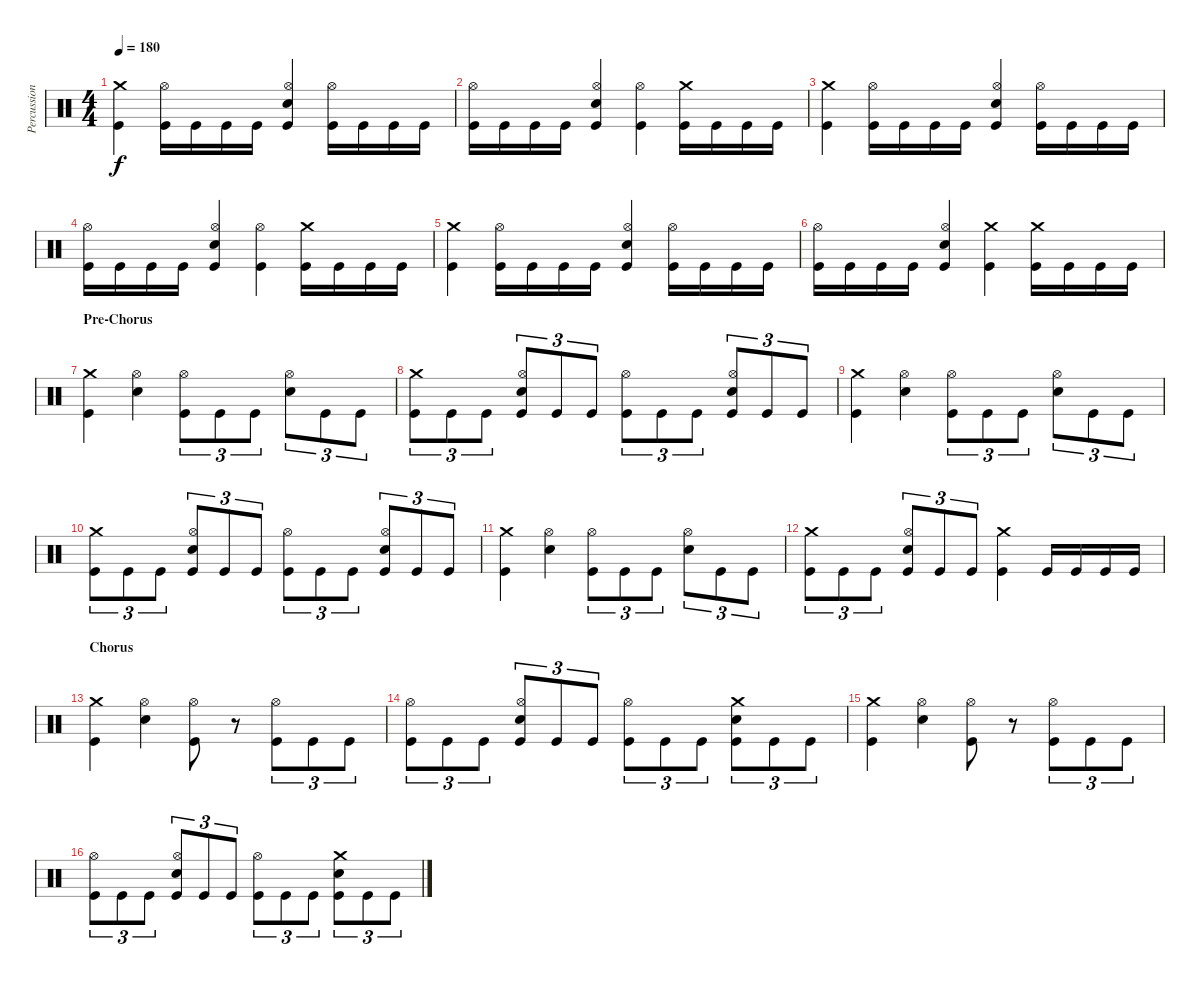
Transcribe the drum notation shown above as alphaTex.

\track ("Percussion" "Percussion") {instrument percussion}
\staff {score}
\articulation defaults
\ts (4 4)
\tempo 180
\clef neutral
\ks c
("Crash medium (hit)" "Kick (hit)").4{dy f} ("Hi-Hat (open)" "Kick (hit)").16 "Kick (hit)".16 "Kick (hit)".16 "Kick (hit)".16 ("Hi-Hat (open)" "Snare (hit) 2" "Kick (hit)").4 ("Hi-Hat (open)" "Kick (hit)").16 "Kick (hit)".16 "Kick (hit)".16 "Kick (hit)".16 |
("Hi-Hat (open)" "Kick (hit)").16 "Kick (hit)".16 "Kick (hit)".16 "Kick (hit)".16 ("Hi-Hat (open)" "Snare (hit) 2" "Kick (hit)").4 ("Hi-Hat (open)" "Kick (hit)").4 ("Crash medium (hit)" "Kick (hit)").16 "Kick (hit)".16 "Kick (hit)".16 "Kick (hit)".16 |
("Crash medium (hit)" "Kick (hit)").4 ("Hi-Hat (open)" "Kick (hit)").16 "Kick (hit)".16 "Kick (hit)".16 "Kick (hit)".16 ("Hi-Hat (open)" "Snare (hit) 2" "Kick (hit)").4 ("Hi-Hat (open)" "Kick (hit)").16 "Kick (hit)".16 "Kick (hit)".16 "Kick (hit)".16 |
("Hi-Hat (open)" "Kick (hit)").16 "Kick (hit)".16 "Kick (hit)".16 "Kick (hit)".16 ("Hi-Hat (open)" "Snare (hit) 2" "Kick (hit)").4 ("Hi-Hat (open)" "Kick (hit)").4 ("Crash medium (hit)" "Kick (hit)").16 "Kick (hit)".16 "Kick (hit)".16 "Kick (hit)".16 |
("Crash medium (hit)" "Kick (hit)").4 ("Hi-Hat (open)" "Kick (hit)").16 "Kick (hit)".16 "Kick (hit)".16 "Kick (hit)".16 ("Hi-Hat (open)" "Snare (hit) 2" "Kick (hit)").4 ("Hi-Hat (open)" "Kick (hit)").16 "Kick (hit)".16 "Kick (hit)".16 "Kick (hit)".16 |
("Hi-Hat (open)" "Kick (hit)").16 "Kick (hit)".16 "Kick (hit)".16 "Kick (hit)".16 ("Hi-Hat (open)" "Snare (hit) 2" "Kick (hit)").4 ("Crash medium (hit)" "Kick (hit)").4 ("Crash medium (hit)" "Kick (hit)").16 "Kick (hit)".16 "Kick (hit)".16 "Kick (hit)".16 |
\section ("" "Pre-Chorus")
("Crash medium (hit)" "Kick (hit)").4 ("Hi-Hat (open)" "Electric Snare (hit)").4 ("Hi-Hat (open)" "Kick (hit)").8{tu (3 2)} "Kick (hit)".8{tu (3 2)} "Kick (hit)".8{tu (3 2)} ("Hi-Hat (open)" "Electric Snare (hit)").8{tu (3 2)} "Kick (hit)".8{tu (3 2)} "Kick (hit)".8{tu (3 2)} |
("Crash medium (hit)" "Kick (hit)").8{tu (3 2)} "Kick (hit)".8{tu (3 2)} "Kick (hit)".8{tu (3 2)} ("Hi-Hat (open)" "Electric Snare (hit)" "Kick (hit)").8{tu (3 2)} "Kick (hit)".8{tu (3 2)} "Kick (hit)".8{tu (3 2)} ("Hi-Hat (open)" "Kick (hit)").8{tu (3 2)} "Kick (hit)".8{tu (3 2)} "Kick (hit)".8{tu (3 2)} ("Hi-Hat (open)" "Electric Snare (hit)" "Kick (hit)").8{tu (3 2)} "Kick (hit)".8{tu (3 2)} "Kick (hit)".8{tu (3 2)} |
("Crash medium (hit)" "Kick (hit)").4 ("Hi-Hat (open)" "Electric Snare (hit)").4 ("Hi-Hat (open)" "Kick (hit)").8{tu (3 2)} "Kick (hit)".8{tu (3 2)} "Kick (hit)".8{tu (3 2)} ("Hi-Hat (open)" "Electric Snare (hit)").8{tu (3 2)} "Kick (hit)".8{tu (3 2)} "Kick (hit)".8{tu (3 2)} |
("Crash medium (hit)" "Kick (hit)").8{tu (3 2)} "Kick (hit)".8{tu (3 2)} "Kick (hit)".8{tu (3 2)} ("Hi-Hat (open)" "Electric Snare (hit)" "Kick (hit)").8{tu (3 2)} "Kick (hit)".8{tu (3 2)} "Kick (hit)".8{tu (3 2)} ("Hi-Hat (open)" "Kick (hit)").8{tu (3 2)} "Kick (hit)".8{tu (3 2)} "Kick (hit)".8{tu (3 2)} ("Hi-Hat (open)" "Electric Snare (hit)" "Kick (hit)").8{tu (3 2)} "Kick (hit)".8{tu (3 2)} "Kick (hit)".8{tu (3 2)} |
("Crash medium (hit)" "Kick (hit)").4 ("Hi-Hat (open)" "Electric Snare (hit)").4 ("Hi-Hat (open)" "Kick (hit)").8{tu (3 2)} "Kick (hit)".8{tu (3 2)} "Kick (hit)".8{tu (3 2)} ("Hi-Hat (open)" "Electric Snare (hit)").8{tu (3 2)} "Kick (hit)".8{tu (3 2)} "Kick (hit)".8{tu (3 2)} |
("Crash medium (hit)" "Kick (hit)").8{tu (3 2)} "Kick (hit)".8{tu (3 2)} "Kick (hit)".8{tu (3 2)} ("Hi-Hat (open)" "Electric Snare (hit)" "Kick (hit)").8{tu (3 2)} "Kick (hit)".8{tu (3 2)} "Kick (hit)".8{tu (3 2)} ("Crash medium (hit)" "Kick (hit)").4 "Kick (hit)".16 "Kick (hit)".16 "Kick (hit)".16 "Kick (hit)".16 |
\section ("" "Chorus")
("Crash medium (hit)" "Kick (hit)").4 ("Hi-Hat (open)" "Electric Snare (hit)").4 ("Hi-Hat (open)" "Kick (hit)").8 r.8 ("Hi-Hat (open)" "Kick (hit)").8{tu (3 2)} "Kick (hit)".8{tu (3 2)} "Kick (hit)".8{tu (3 2)} |
("Hi-Hat (open)" "Kick (hit)").8{tu (3 2)} "Kick (hit)".8{tu (3 2)} "Kick (hit)".8{tu (3 2)} ("Hi-Hat (open)" "Electric Snare (hit)" "Kick (hit)").8{tu (3 2)} "Kick (hit)".8{tu (3 2)} "Kick (hit)".8{tu (3 2)} ("Hi-Hat (open)" "Kick (hit)").8{tu (3 2)} "Kick (hit)".8{tu (3 2)} "Kick (hit)".8{tu (3 2)} ("Crash medium (hit)" "Electric Snare (hit)" "Kick (hit)").8{tu (3 2)} "Kick (hit)".8{tu (3 2)} "Kick (hit)".8{tu (3 2)} |
("Crash medium (hit)" "Kick (hit)").4 ("Hi-Hat (open)" "Electric Snare (hit)").4 ("Hi-Hat (open)" "Kick (hit)").8 r.8 ("Hi-Hat (open)" "Kick (hit)").8{tu (3 2)} "Kick (hit)".8{tu (3 2)} "Kick (hit)".8{tu (3 2)} |
("Hi-Hat (open)" "Kick (hit)").8{tu (3 2)} "Kick (hit)".8{tu (3 2)} "Kick (hit)".8{tu (3 2)} ("Hi-Hat (open)" "Electric Snare (hit)" "Kick (hit)").8{tu (3 2)} "Kick (hit)".8{tu (3 2)} "Kick (hit)".8{tu (3 2)} ("Hi-Hat (open)" "Kick (hit)").8{tu (3 2)} "Kick (hit)".8{tu (3 2)} "Kick (hit)".8{tu (3 2)} ("Crash medium (hit)" "Electric Snare (hit)" "Kick (hit)").8{tu (3 2)} "Kick (hit)".8{tu (3 2)} "Kick (hit)".8{tu (3 2)}
